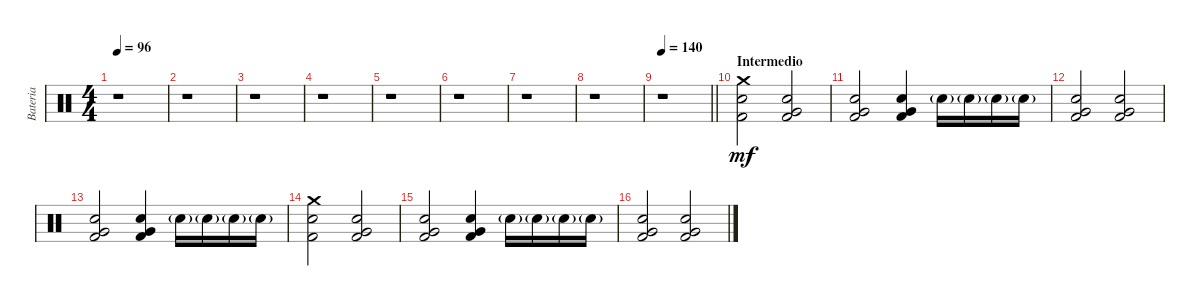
\track ("Bateria" "Bateria") {instrument percussion}
\staff {score}
\articulation defaults
\ts (4 4)
\tempo 96
\clef neutral
\ks c
r.1{dy mf} |
r.1 |
r.1 |
r.1 |
r.1 |
r.1 |
r.1 |
r.1 |
\tempo 140
\barLineRight lightlight
r.1 |
\section ("" "Intermedio")
("Crash medium (hit)" "Snare (hit) 2" "Kick (hit) 2").2 ("Very Low Tom (hit)" "Snare (hit) 2" "Kick (hit) 2").2 |
("Very Low Tom (hit)" "Snare (hit) 2" "Kick (hit) 2").2 ("Very Low Tom (hit)" "Snare (hit) 2" "Kick (hit) 2").4 "Snare (hit) 2"{g}.16 "Snare (hit) 2"{g}.16 "Snare (hit) 2"{g}.16 "Snare (hit) 2"{g}.16 |
("Very Low Tom (hit)" "Snare (hit) 2" "Kick (hit) 2").2 ("Very Low Tom (hit)" "Snare (hit) 2" "Kick (hit) 2").2 |
("Very Low Tom (hit)" "Snare (hit) 2" "Kick (hit) 2").2 ("Very Low Tom (hit)" "Snare (hit) 2" "Kick (hit) 2").4 "Snare (hit) 2"{g}.16 "Snare (hit) 2"{g}.16 "Snare (hit) 2"{g}.16 "Snare (hit) 2"{g}.16 |
("Crash medium (hit)" "Snare (hit) 2" "Kick (hit) 2").2 ("Very Low Tom (hit)" "Snare (hit) 2" "Kick (hit) 2").2 |
("Very Low Tom (hit)" "Snare (hit) 2" "Kick (hit) 2").2 ("Very Low Tom (hit)" "Snare (hit) 2" "Kick (hit) 2").4 "Snare (hit) 2"{g}.16 "Snare (hit) 2"{g}.16 "Snare (hit) 2"{g}.16 "Snare (hit) 2"{g}.16 |
("Very Low Tom (hit)" "Snare (hit) 2" "Kick (hit) 2").2 ("Very Low Tom (hit)" "Snare (hit) 2" "Kick (hit) 2").2
